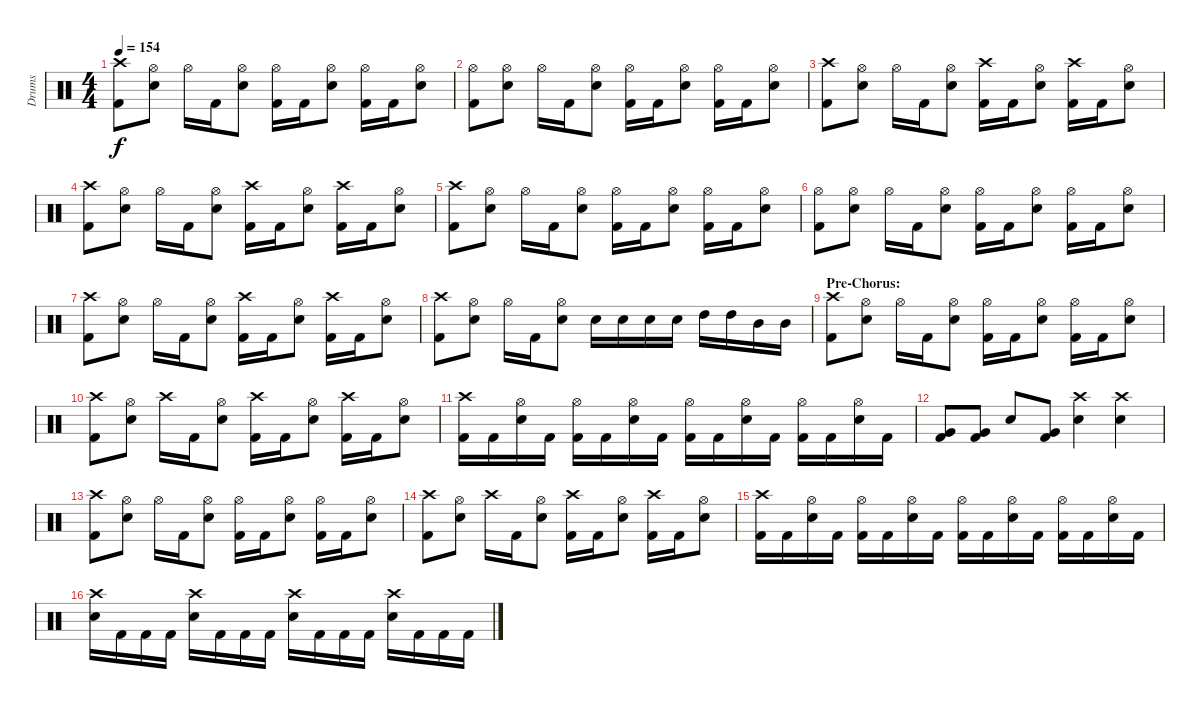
\track ("Drums" "Drums") {instrument percussion}
\staff {score}
\articulation defaults
\ts (4 4)
\tempo 154
\clef neutral
\ks c
("Crash high (hit)" "Kick (hit) 2").8{dy f} ("Hi-Hat (open)" "Snare (hit) 2").8 "Hi-Hat (open)".16 "Kick (hit) 2".16 ("Hi-Hat (open)" "Snare (hit) 2").8 ("Hi-Hat (open)" "Kick (hit) 2").16 "Kick (hit) 2".16 ("Hi-Hat (open)" "Snare (hit) 2").8 ("Hi-Hat (open)" "Kick (hit) 2").16 "Kick (hit) 2".16 ("Hi-Hat (open)" "Snare (hit) 2").8 |
("Hi-Hat (open)" "Kick (hit) 2").8 ("Hi-Hat (open)" "Snare (hit) 2").8 "Hi-Hat (open)".16 "Kick (hit) 2".16 ("Hi-Hat (open)" "Snare (hit) 2").8 ("Hi-Hat (open)" "Kick (hit) 2").16 "Kick (hit) 2".16 ("Hi-Hat (open)" "Snare (hit) 2").8 ("Hi-Hat (open)" "Kick (hit) 2").16 "Kick (hit) 2".16 ("Hi-Hat (open)" "Snare (hit) 2").8 |
("Crash high (hit)" "Kick (hit) 2").8 ("Hi-Hat (open)" "Snare (hit) 2").8 "Hi-Hat (open)".16 "Kick (hit) 2".16 ("Hi-Hat (open)" "Snare (hit) 2").8 ("Crash high (hit)" "Kick (hit) 2").16 "Kick (hit) 2".16 ("Hi-Hat (open)" "Snare (hit) 2").8 ("Crash high (hit)" "Kick (hit) 2").16 "Kick (hit) 2".16 ("Hi-Hat (open)" "Snare (hit) 2").8 |
("Crash high (hit)" "Kick (hit) 2").8 ("Hi-Hat (open)" "Snare (hit) 2").8 "Hi-Hat (open)".16 "Kick (hit) 2".16 ("Hi-Hat (open)" "Snare (hit) 2").8 ("Crash high (hit)" "Kick (hit) 2").16 "Kick (hit) 2".16 ("Hi-Hat (open)" "Snare (hit) 2").8 ("Crash high (hit)" "Kick (hit) 2").16 "Kick (hit) 2".16 ("Hi-Hat (open)" "Snare (hit) 2").8 |
("Crash high (hit)" "Kick (hit) 2").8 ("Hi-Hat (open)" "Snare (hit) 2").8 "Hi-Hat (open)".16 "Kick (hit) 2".16 ("Hi-Hat (open)" "Snare (hit) 2").8 ("Hi-Hat (open)" "Kick (hit) 2").16 "Kick (hit) 2".16 ("Hi-Hat (open)" "Snare (hit) 2").8 ("Hi-Hat (open)" "Kick (hit) 2").16 "Kick (hit) 2".16 ("Hi-Hat (open)" "Snare (hit) 2").8 |
("Hi-Hat (open)" "Kick (hit) 2").8 ("Hi-Hat (open)" "Snare (hit) 2").8 "Hi-Hat (open)".16 "Kick (hit) 2".16 ("Hi-Hat (open)" "Snare (hit) 2").8 ("Hi-Hat (open)" "Kick (hit) 2").16 "Kick (hit) 2".16 ("Hi-Hat (open)" "Snare (hit) 2").8 ("Hi-Hat (open)" "Kick (hit) 2").16 "Kick (hit) 2".16 ("Hi-Hat (open)" "Snare (hit) 2").8 |
("Crash high (hit)" "Kick (hit) 2").8 ("Hi-Hat (open)" "Snare (hit) 2").8 "Hi-Hat (open)".16 "Kick (hit) 2".16 ("Hi-Hat (open)" "Snare (hit) 2").8 ("Crash high (hit)" "Kick (hit) 2").16 "Kick (hit) 2".16 ("Hi-Hat (open)" "Snare (hit) 2").8 ("Crash high (hit)" "Kick (hit) 2").16 "Kick (hit) 2".16 ("Hi-Hat (open)" "Snare (hit) 2").8 |
("Crash high (hit)" "Kick (hit) 2").8 ("Hi-Hat (open)" "Snare (hit) 2").8 "Hi-Hat (open)".16 "Kick (hit) 2".16 ("Hi-Hat (open)" "Snare (hit) 2").8 "Snare (hit) 2".16 "Snare (hit) 2".16 "Snare (hit) 2".16 "Snare (hit) 2".16 "High Tom (hit)".16 "High Tom (hit)".16 "Mid Tom (hit)".16 "Mid Tom (hit)".16 |
\section ("" "Pre-Chorus:")
("Crash high (hit)" "Kick (hit) 2").8 ("Hi-Hat (open)" "Snare (hit) 2").8 "Hi-Hat (open)".16 "Kick (hit) 2".16 ("Hi-Hat (open)" "Snare (hit) 2").8 ("Hi-Hat (open)" "Kick (hit) 2").16 "Kick (hit) 2".16 ("Hi-Hat (open)" "Snare (hit) 2").8 ("Hi-Hat (open)" "Kick (hit) 2").16 "Kick (hit) 2".16 ("Hi-Hat (open)" "Snare (hit) 2").8 |
("Crash high (hit)" "Kick (hit) 2").8 ("Hi-Hat (open)" "Snare (hit) 2").8 "Crash high (hit)".16 "Kick (hit) 2".16 ("Hi-Hat (open)" "Snare (hit) 2").8 ("Crash high (hit)" "Kick (hit) 2").16 "Kick (hit) 2".16 ("Hi-Hat (open)" "Snare (hit) 2").8 ("Crash high (hit)" "Kick (hit) 2").16 "Kick (hit) 2".16 ("Hi-Hat (open)" "Snare (hit) 2").8 |
("Crash high (hit)" "Kick (hit) 2").16 "Kick (hit) 2".16 ("Hi-Hat (open)" "Snare (hit) 2").16 "Kick (hit) 2".16 ("Hi-Hat (open)" "Kick (hit) 2").16 "Kick (hit) 2".16 ("Hi-Hat (open)" "Snare (hit) 2").16 "Kick (hit) 2".16 ("Hi-Hat (open)" "Kick (hit) 2").16 "Kick (hit) 2".16 ("Hi-Hat (open)" "Snare (hit) 2").16 "Kick (hit) 2".16 ("Hi-Hat (open)" "Kick (hit) 2").16 "Kick (hit) 2".16 ("Hi-Hat (open)" "Snare (hit) 2").16 "Kick (hit) 2".16 |
("Very Low Tom (hit)" "Kick (hit) 2").8 ("Very Low Tom (hit)" "Kick (hit) 2").8 "Snare (hit) 2".8 ("Very Low Tom (hit)" "Kick (hit) 2").8 ("Crash high (hit)" "Snare (hit) 2").4 ("Crash high (hit)" "Snare (hit) 2").4 |
("Crash high (hit)" "Kick (hit) 2").8 ("Hi-Hat (open)" "Snare (hit) 2").8 "Hi-Hat (open)".16 "Kick (hit) 2".16 ("Hi-Hat (open)" "Snare (hit) 2").8 ("Hi-Hat (open)" "Kick (hit) 2").16 "Kick (hit) 2".16 ("Hi-Hat (open)" "Snare (hit) 2").8 ("Hi-Hat (open)" "Kick (hit) 2").16 "Kick (hit) 2".16 ("Hi-Hat (open)" "Snare (hit) 2").8 |
("Crash high (hit)" "Kick (hit) 2").8 ("Hi-Hat (open)" "Snare (hit) 2").8 "Crash high (hit)".16 "Kick (hit) 2".16 ("Hi-Hat (open)" "Snare (hit) 2").8 ("Crash high (hit)" "Kick (hit) 2").16 "Kick (hit) 2".16 ("Hi-Hat (open)" "Snare (hit) 2").8 ("Crash high (hit)" "Kick (hit) 2").16 "Kick (hit) 2".16 ("Hi-Hat (open)" "Snare (hit) 2").8 |
("Crash high (hit)" "Kick (hit) 2").16 "Kick (hit) 2".16 ("Hi-Hat (open)" "Snare (hit) 2").16 "Kick (hit) 2".16 ("Hi-Hat (open)" "Kick (hit) 2").16 "Kick (hit) 2".16 ("Hi-Hat (open)" "Snare (hit) 2").16 "Kick (hit) 2".16 ("Hi-Hat (open)" "Kick (hit) 2").16 "Kick (hit) 2".16 ("Hi-Hat (open)" "Snare (hit) 2").16 "Kick (hit) 2".16 ("Hi-Hat (open)" "Kick (hit) 2").16 "Kick (hit) 2".16 ("Hi-Hat (open)" "Snare (hit) 2").16 "Kick (hit) 2".16 |
("Crash high (hit)" "Snare (hit) 2").16 "Kick (hit) 2".16 "Kick (hit) 2".16 "Kick (hit) 2".16 ("Crash high (hit)" "Snare (hit) 2").16 "Kick (hit) 2".16 "Kick (hit) 2".16 "Kick (hit) 2".16 ("Crash high (hit)" "Snare (hit) 2").16 "Kick (hit) 2".16 "Kick (hit) 2".16 "Kick (hit) 2".16 ("Crash high (hit)" "Snare (hit) 2").16 "Kick (hit) 2".16 "Kick (hit) 2".16 "Kick (hit) 2".16
